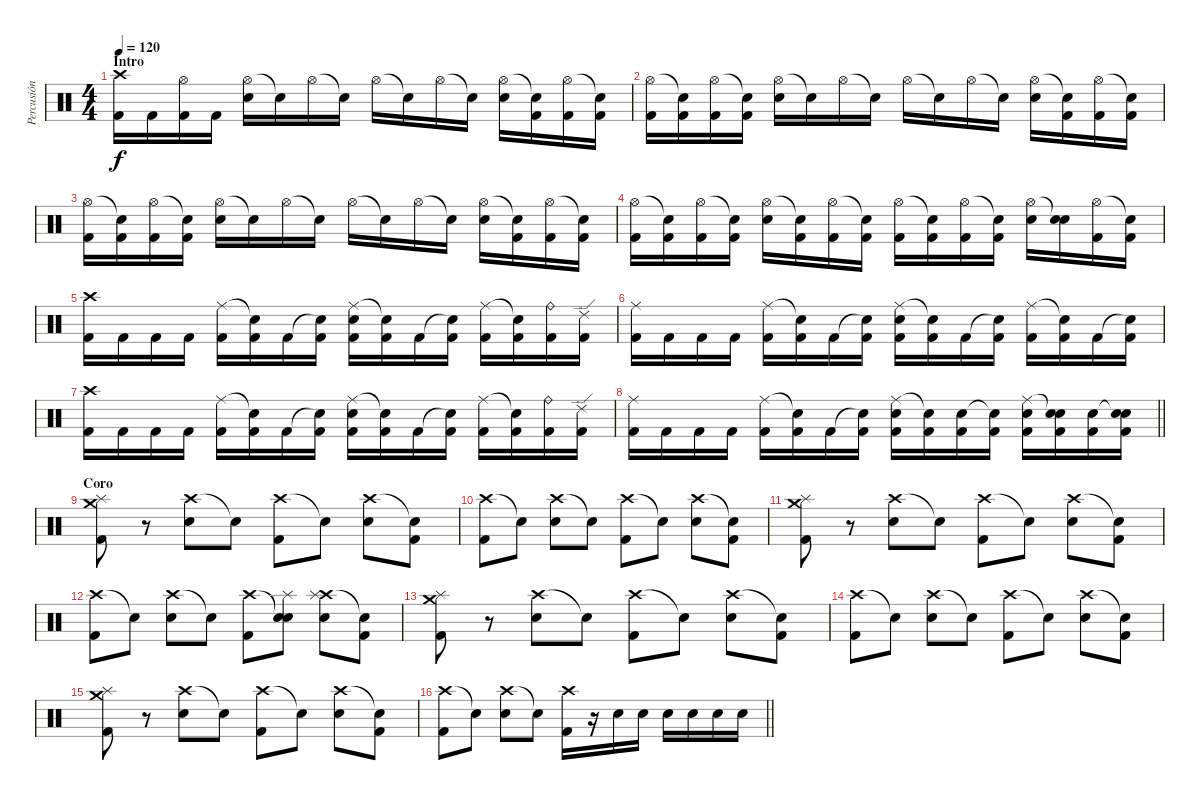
\track ("Percusión" "Percusión") {instrument percussion}
\staff {score}
\articulation defaults
\ts (4 4)
\section ("" "Intro")
\tempo 120
\clef neutral
\ks c
("Crash high (hit)" "Kick (hit) 2").16{dy f} "Kick (hit) 2".16 ("Hi-Hat (open)" "Kick (hit) 2").16 "Kick (hit) 2".16 ("Hi-Hat (open)" "Snare (hit) 2").16 "Snare (hit)"{t}.16 "Hi-Hat (open)".16 "Snare (hit)"{t}.16 "Hi-Hat (open)".16 "Snare (hit)"{t}.16 "Hi-Hat (open)".16 "Snare (hit)"{t}.16 ("Hi-Hat (open)" "Snare (hit) 2").16 ("Snare (hit)"{t} "Kick (hit) 2").16 ("Hi-Hat (open)" "Kick (hit) 2").16 ("Snare (hit)"{t} "Kick (hit) 2").16 |
("Hi-Hat (open)" "Kick (hit) 2").16 ("Snare (hit)"{t} "Kick (hit) 2").16 ("Hi-Hat (open)" "Kick (hit) 2").16 ("Snare (hit)"{t} "Kick (hit) 2").16 ("Hi-Hat (open)" "Snare (hit) 2").16 "Snare (hit)"{t}.16 "Hi-Hat (open)".16 "Snare (hit)"{t}.16 "Hi-Hat (open)".16 "Snare (hit)"{t}.16 "Hi-Hat (open)".16 "Snare (hit)"{t}.16 ("Hi-Hat (open)" "Snare (hit) 2").16 ("Snare (hit)"{t} "Kick (hit) 2").16 ("Hi-Hat (open)" "Kick (hit) 2").16 ("Snare (hit)"{t} "Kick (hit) 2").16 |
("Hi-Hat (open)" "Kick (hit) 2").16 ("Snare (hit)"{t} "Kick (hit) 2").16 ("Hi-Hat (open)" "Kick (hit) 2").16 ("Snare (hit)"{t} "Kick (hit) 2").16 ("Hi-Hat (open)" "Snare (hit) 2").16 "Snare (hit)"{t}.16 "Hi-Hat (open)".16 "Snare (hit)"{t}.16 "Hi-Hat (open)".16 "Snare (hit)"{t}.16 "Hi-Hat (open)".16 "Snare (hit)"{t}.16 ("Hi-Hat (open)" "Snare (hit) 2").16 ("Snare (hit)"{t} "Kick (hit) 2").16 ("Hi-Hat (open)" "Kick (hit) 2").16 ("Snare (hit)"{t} "Kick (hit) 2").16 |
("Hi-Hat (open)" "Kick (hit) 2").16 ("Snare (hit)"{t} "Kick (hit) 2").16 ("Hi-Hat (open)" "Kick (hit) 2").16 ("Snare (hit)"{t} "Kick (hit) 2").16 ("Hi-Hat (open)" "Snare (hit) 2").16 ("Snare (hit)"{t} "Kick (hit) 2").16 ("Hi-Hat (open)" "Kick (hit) 2").16 ("Snare (hit)"{t} "Kick (hit) 2").16 ("Hi-Hat (open)" "Kick (hit) 2").16 ("Snare (hit)"{t} "Kick (hit) 2").16 ("Hi-Hat (open)" "Kick (hit) 2").16 ("Snare (hit)"{t} "Kick (hit) 2").16 ("Hi-Hat (open)" "Snare (hit) 2").16 ("Snare (hit)"{t} "Snare (hit) 2").16 ("Hi-Hat (open)" "Kick (hit) 2").16 ("Snare (hit)"{t} "Kick (hit) 2").16 |
("Crash high (hit)" "Kick (hit) 2").16 "Kick (hit) 2".16 "Kick (hit) 2".16 "Kick (hit) 2".16 ("Ride (middle)" "Kick (hit) 2").16 ("Snare (hit)"{t} "Kick (hit) 2").16 "Kick (hit) 2".16 ("Snare (hit)"{t} "Kick (hit) 2").16 ("Ride (middle)" "Snare (hit) 2" "Kick (hit) 2").16 ("Snare (hit)"{t} "Kick (hit) 2").16 "Kick (hit) 2".16 ("Snare (hit)"{t} "Kick (hit) 2").16 ("Ride (middle)" "Kick (hit) 2").16 ("Snare (hit)"{t} "Kick (hit) 2").16 ("Ride (bell)" "Kick (hit) 2").16 ("Ride (edge) 2" "Kick (hit) 2").16 |
("Ride (middle)" "Kick (hit) 2").16 "Kick (hit) 2".16 "Kick (hit) 2".16 "Kick (hit) 2".16 ("Ride (middle)" "Kick (hit) 2").16 ("Snare (hit)"{t} "Kick (hit) 2").16 "Kick (hit) 2".16 ("Snare (hit)"{t} "Kick (hit) 2").16 ("Ride (middle)" "Snare (hit) 2" "Kick (hit) 2").16 ("Snare (hit)"{t} "Kick (hit) 2").16 "Kick (hit) 2".16 ("Snare (hit)"{t} "Kick (hit) 2").16 ("Ride (middle)" "Kick (hit) 2").16 ("Snare (hit)"{t} "Kick (hit) 2").16 "Kick (hit) 2".16 ("Snare (hit)"{t} "Kick (hit) 2").16 |
("Crash high (hit)" "Kick (hit) 2").16 "Kick (hit) 2".16 "Kick (hit) 2".16 "Kick (hit) 2".16 ("Ride (middle)" "Kick (hit) 2").16 ("Snare (hit)"{t} "Kick (hit) 2").16 "Kick (hit) 2".16 ("Snare (hit)"{t} "Kick (hit) 2").16 ("Ride (middle)" "Snare (hit) 2" "Kick (hit) 2").16 ("Snare (hit)"{t} "Kick (hit) 2").16 "Kick (hit) 2".16 ("Snare (hit)"{t} "Kick (hit) 2").16 ("Ride (middle)" "Kick (hit) 2").16 ("Snare (hit)"{t} "Kick (hit) 2").16 ("Ride (bell)" "Kick (hit) 2").16 ("Ride (edge) 2" "Kick (hit) 2").16 |
\barLineRight lightlight
("Ride (middle)" "Kick (hit) 2").16 "Kick (hit) 2".16 "Kick (hit) 2".16 "Kick (hit) 2".16 ("Ride (middle)" "Kick (hit) 2").16 ("Snare (hit)"{t} "Kick (hit) 2").16 "Kick (hit) 2".16 ("Snare (hit)"{t} "Kick (hit) 2").16 ("Ride (middle)" "Snare (hit) 2" "Kick (hit) 2").16 ("Snare (hit)"{t} "Kick (hit) 2").16 ("Snare (hit) 2" "Kick (hit) 2").16 ("Snare (hit)"{t} "Kick (hit) 2").16 ("Ride (middle)" "Snare (hit) 2" "Kick (hit) 2").16 ("Snare (hit)"{t} "Snare (hit) 2" "Kick (hit) 2").16 ("Snare (hit) 2" "Kick (hit) 2").16 ("Snare (hit)"{t} "Snare (hit) 2" "Kick (hit) 2").16 |
\section ("" "Coro")
("Splash (hit)" "Crash medium (hit)" "Kick (hit) 2").8 r.8 ("Crash high (hit)" "Snare (hit) 2").8 "Snare (hit)"{t}.8 ("Crash high (hit)" "Kick (hit) 2").8 "Snare (hit)"{t}.8 ("Crash high (hit)" "Snare (hit) 2").8 ("Snare (hit)"{t} "Kick (hit) 2").8 |
("Crash high (hit)" "Kick (hit) 2").8 "Snare (hit)"{t}.8 ("Crash high (hit)" "Snare (hit) 2").8 "Snare (hit)"{t}.8 ("Crash high (hit)" "Kick (hit) 2").8 "Snare (hit)"{t}.8 ("Crash high (hit)" "Snare (hit) 2").8 ("Snare (hit)"{t} "Kick (hit) 2").8 |
("Splash (hit)" "Crash medium (hit)" "Kick (hit) 2").8 r.8 ("Crash high (hit)" "Snare (hit) 2").8 "Snare (hit)"{t}.8 ("Crash high (hit)" "Kick (hit) 2").8 "Snare (hit)"{t}.8 ("Crash high (hit)" "Snare (hit) 2").8 ("Snare (hit)"{t} "Kick (hit) 2").8 |
("Crash high (hit)" "Kick (hit) 2").8 "Snare (hit)"{t}.8 ("Crash high (hit)" "Snare (hit) 2").8 "Snare (hit)"{t}.8 ("Crash high (hit)" "Kick (hit) 2").8 ("Snare (hit)"{t} "Splash (hit)" "Snare (hit) 2").8 ("Crash high (hit)" "Splash (hit)" "Snare (hit) 2").8 ("Snare (hit)"{t} "Kick (hit) 2").8 |
("Splash (hit)" "Crash medium (hit)" "Kick (hit) 2").8 r.8 ("Crash high (hit)" "Snare (hit) 2").8 "Snare (hit)"{t}.8 ("Crash high (hit)" "Kick (hit) 2").8 "Snare (hit)"{t}.8 ("Crash high (hit)" "Snare (hit) 2").8 ("Snare (hit)"{t} "Kick (hit) 2").8 |
("Crash high (hit)" "Kick (hit) 2").8 "Snare (hit)"{t}.8 ("Crash high (hit)" "Snare (hit) 2").8 "Snare (hit)"{t}.8 ("Crash high (hit)" "Kick (hit) 2").8 "Snare (hit)"{t}.8 ("Crash high (hit)" "Snare (hit) 2").8 ("Snare (hit)"{t} "Kick (hit) 2").8 |
("Splash (hit)" "Crash medium (hit)" "Kick (hit) 2").8 r.8 ("Crash high (hit)" "Snare (hit) 2").8 "Snare (hit)"{t}.8 ("Crash high (hit)" "Kick (hit) 2").8 "Snare (hit)"{t}.8 ("Crash high (hit)" "Snare (hit) 2").8 ("Snare (hit)"{t} "Kick (hit) 2").8 |
\barLineRight lightlight
("Crash high (hit)" "Kick (hit) 2").8 "Snare (hit)"{t}.8 ("Crash high (hit)" "Snare (hit) 2").8 "Snare (hit)"{t}.8 ("Crash high (hit)" "Kick (hit) 2").16 r.16 "Snare (hit) 2".16 "Snare (hit) 2".16 "Snare (hit) 2".16 "Snare (hit) 2".16 "Snare (hit) 2".16 "Snare (hit) 2".16
